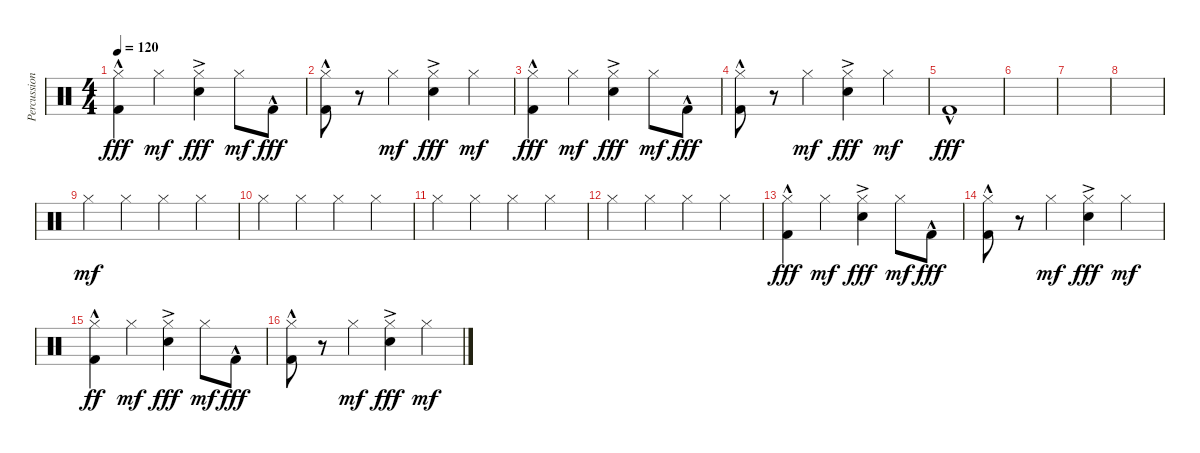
\track ("Percussion" "Percussion") {instrument percussion}
\staff {score}
\articulation defaults
\ts (4 4)
\tempo 120
\clef neutral
\ks c
("Hi-Hat (closed)" "Kick (hit) 2"{hac}).4{dy fff} "Hi-Hat (closed)".4{dy mf} ("Hi-Hat (closed)" "Electric Snare (hit)"{ac}).4{dy fff} "Hi-Hat (closed)".8{dy mf} "Kick (hit) 2"{hac}.8{dy fff} |
("Hi-Hat (closed)" "Kick (hit) 2"{hac}).8 r.8 "Hi-Hat (closed)".4{dy mf} ("Hi-Hat (closed)" "Electric Snare (hit)"{ac}).4{dy fff} "Hi-Hat (closed)".4{dy mf} |
("Hi-Hat (closed)" "Kick (hit) 2"{hac}).4{dy fff} "Hi-Hat (closed)".4{dy mf} ("Hi-Hat (closed)" "Electric Snare (hit)"{ac}).4{dy fff} "Hi-Hat (closed)".8{dy mf} "Kick (hit) 2"{hac}.8{dy fff} |
("Hi-Hat (closed)" "Kick (hit) 2"{hac}).8 r.8 "Hi-Hat (closed)".4{dy mf} ("Hi-Hat (closed)" "Electric Snare (hit)"{ac}).4{dy fff} "Hi-Hat (closed)".4{dy mf} |
"Kick (hit) 2"{hac}.1{dy fff} |
|
|
|
"Hi-Hat (closed)".4{dy mf} "Hi-Hat (closed)".4 "Hi-Hat (closed)".4 "Hi-Hat (closed)".4 |
"Hi-Hat (closed)".4 "Hi-Hat (closed)".4 "Hi-Hat (closed)".4 "Hi-Hat (closed)".4 |
"Hi-Hat (closed)".4 "Hi-Hat (closed)".4 "Hi-Hat (closed)".4 "Hi-Hat (closed)".4 |
"Hi-Hat (closed)".4 "Hi-Hat (closed)".4 "Hi-Hat (closed)".4 "Hi-Hat (closed)".4 |
("Hi-Hat (closed)" "Kick (hit) 2"{hac}).4{dy fff} "Hi-Hat (closed)".4{dy mf} ("Hi-Hat (closed)" "Electric Snare (hit)"{ac}).4{dy fff} "Hi-Hat (closed)".8{dy mf} "Kick (hit) 2"{hac}.8{dy fff} |
("Hi-Hat (closed)" "Kick (hit) 2"{hac}).8 r.8 "Hi-Hat (closed)".4{dy mf} ("Hi-Hat (closed)" "Electric Snare (hit)"{ac}).4{dy fff} "Hi-Hat (closed)".4{dy mf} |
("Hi-Hat (closed)" "Kick (hit) 2"{hac}).4{dy ff} "Hi-Hat (closed)".4{dy mf} ("Hi-Hat (closed)" "Electric Snare (hit)"{ac}).4{dy fff} "Hi-Hat (closed)".8{dy mf} "Kick (hit) 2"{hac}.8{dy fff} |
("Hi-Hat (closed)" "Kick (hit) 2"{hac}).8 r.8 "Hi-Hat (closed)".4{dy mf} ("Hi-Hat (closed)" "Electric Snare (hit)"{ac}).4{dy fff} "Hi-Hat (closed)".4{dy mf}
